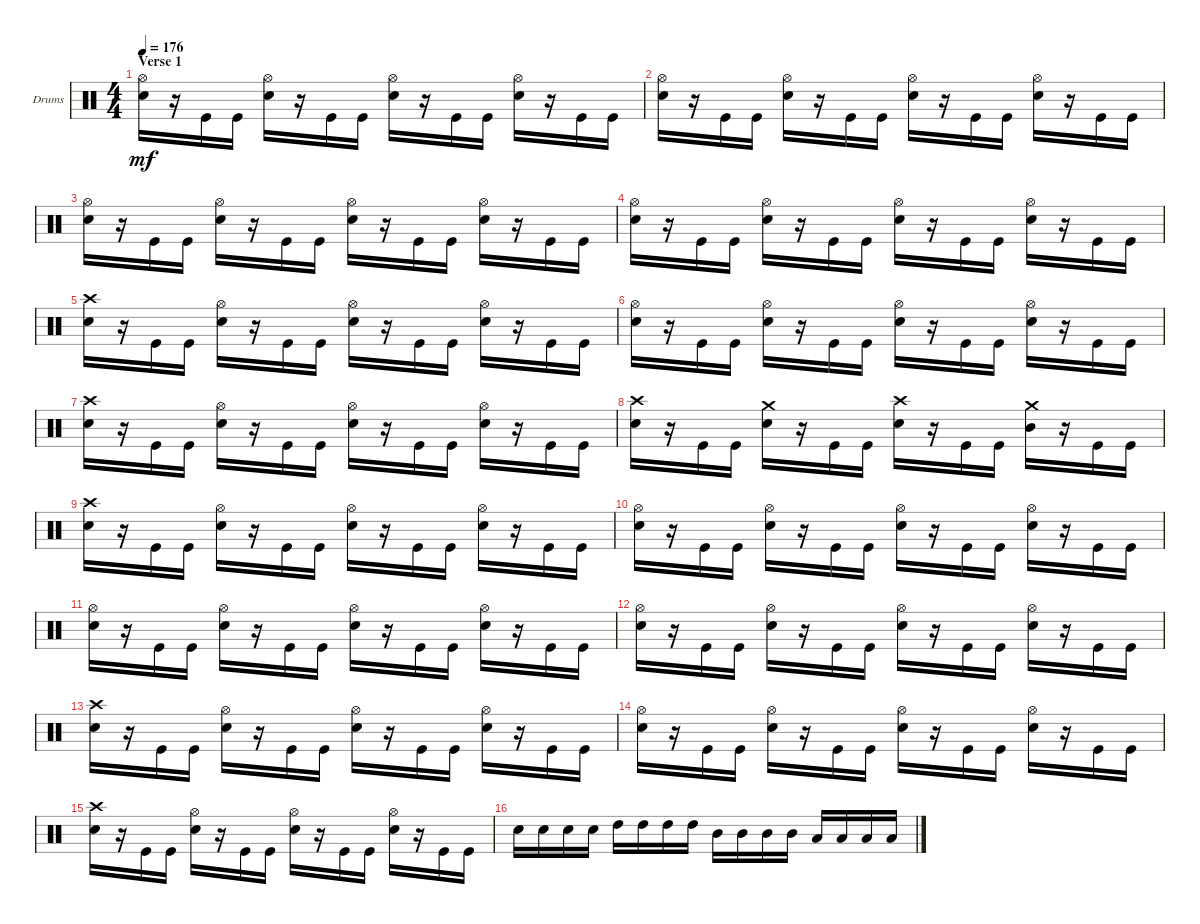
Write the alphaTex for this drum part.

\bracketExtendMode groupsimilarinstruments
\firstSystemTrackNameOrientation horizontal
\otherSystemsTrackNameOrientation horizontal
\track ("Drums" "Drums") {instrument percussion}
\staff {score}
\articulation defaults
\ts (4 4)
\section ("" "Verse 1")
\tempo 176
\clef neutral
\ks c
("Snare (hit) 2" "Hi-Hat (open)").16{dy mf} r.16 "Kick (hit)".16 "Kick (hit)".16 ("Snare (hit) 2" "Hi-Hat (open)").16 r.16 "Kick (hit)".16 "Kick (hit)".16 ("Snare (hit) 2" "Hi-Hat (open)").16 r.16 "Kick (hit)".16 "Kick (hit)".16 ("Snare (hit) 2" "Hi-Hat (open)").16 r.16 "Kick (hit)".16 "Kick (hit)".16 |
("Snare (hit) 2" "Hi-Hat (open)").16 r.16 "Kick (hit)".16 "Kick (hit)".16 ("Snare (hit) 2" "Hi-Hat (open)").16 r.16 "Kick (hit)".16 "Kick (hit)".16 ("Snare (hit) 2" "Hi-Hat (open)").16 r.16 "Kick (hit)".16 "Kick (hit)".16 ("Snare (hit) 2" "Hi-Hat (open)").16 r.16 "Kick (hit)".16 "Kick (hit)".16 |
("Snare (hit) 2" "Hi-Hat (open)").16 r.16 "Kick (hit)".16 "Kick (hit)".16 ("Snare (hit) 2" "Hi-Hat (open)").16 r.16 "Kick (hit)".16 "Kick (hit)".16 ("Snare (hit) 2" "Hi-Hat (open)").16 r.16 "Kick (hit)".16 "Kick (hit)".16 ("Snare (hit) 2" "Hi-Hat (open)").16 r.16 "Kick (hit)".16 "Kick (hit)".16 |
("Snare (hit) 2" "Hi-Hat (open)").16 r.16 "Kick (hit)".16 "Kick (hit)".16 ("Snare (hit) 2" "Hi-Hat (open)").16 r.16 "Kick (hit)".16 "Kick (hit)".16 ("Snare (hit) 2" "Hi-Hat (open)").16 r.16 "Kick (hit)".16 "Kick (hit)".16 ("Snare (hit) 2" "Hi-Hat (open)").16 r.16 "Kick (hit)".16 "Kick (hit)".16 |
("Snare (hit) 2" "Crash high (hit)").16 r.16 "Kick (hit)".16 "Kick (hit)".16 ("Snare (hit) 2" "Hi-Hat (open)").16 r.16 "Kick (hit)".16 "Kick (hit)".16 ("Snare (hit) 2" "Hi-Hat (open)").16 r.16 "Kick (hit)".16 "Kick (hit)".16 ("Snare (hit) 2" "Hi-Hat (open)").16 r.16 "Kick (hit)".16 "Kick (hit)".16 |
("Snare (hit) 2" "Hi-Hat (open)").16 r.16 "Kick (hit)".16 "Kick (hit)".16 ("Snare (hit) 2" "Hi-Hat (open)").16 r.16 "Kick (hit)".16 "Kick (hit)".16 ("Snare (hit) 2" "Hi-Hat (open)").16 r.16 "Kick (hit)".16 "Kick (hit)".16 ("Snare (hit) 2" "Hi-Hat (open)").16 r.16 "Kick (hit)".16 "Kick (hit)".16 |
("Snare (hit) 2" "Crash high (hit)").16 r.16 "Kick (hit)".16 "Kick (hit)".16 ("Snare (hit) 2" "Hi-Hat (open)").16 r.16 "Kick (hit)".16 "Kick (hit)".16 ("Snare (hit) 2" "Hi-Hat (open)").16 r.16 "Kick (hit)".16 "Kick (hit)".16 ("Snare (hit) 2" "Hi-Hat (open)").16 r.16 "Kick (hit)".16 "Kick (hit)".16 |
("Snare (hit) 2" "Crash high (hit)").16 r.16 "Kick (hit)".16 "Kick (hit)".16 ("Snare (hit) 2" "Crash medium (hit)").16 r.16 "Kick (hit)".16 "Kick (hit)".16 ("Snare (hit) 2" "Crash high (hit)").16 r.16 "Kick (hit)".16 "Kick (hit)".16 ("Mid Tom (hit)" "Crash medium (hit)").16 r.16 "Kick (hit)".16 "Kick (hit)".16 |
("Snare (hit) 2" "Crash high (hit)").16 r.16 "Kick (hit)".16 "Kick (hit)".16 ("Snare (hit) 2" "Hi-Hat (open)").16 r.16 "Kick (hit)".16 "Kick (hit)".16 ("Snare (hit) 2" "Hi-Hat (open)").16 r.16 "Kick (hit)".16 "Kick (hit)".16 ("Snare (hit) 2" "Hi-Hat (open)").16 r.16 "Kick (hit)".16 "Kick (hit)".16 |
("Snare (hit) 2" "Hi-Hat (open)").16 r.16 "Kick (hit)".16 "Kick (hit)".16 ("Snare (hit) 2" "Hi-Hat (open)").16 r.16 "Kick (hit)".16 "Kick (hit)".16 ("Snare (hit) 2" "Hi-Hat (open)").16 r.16 "Kick (hit)".16 "Kick (hit)".16 ("Snare (hit) 2" "Hi-Hat (open)").16 r.16 "Kick (hit)".16 "Kick (hit)".16 |
("Snare (hit) 2" "Hi-Hat (open)").16 r.16 "Kick (hit)".16 "Kick (hit)".16 ("Snare (hit) 2" "Hi-Hat (open)").16 r.16 "Kick (hit)".16 "Kick (hit)".16 ("Snare (hit) 2" "Hi-Hat (open)").16 r.16 "Kick (hit)".16 "Kick (hit)".16 ("Snare (hit) 2" "Hi-Hat (open)").16 r.16 "Kick (hit)".16 "Kick (hit)".16 |
("Snare (hit) 2" "Hi-Hat (open)").16 r.16 "Kick (hit)".16 "Kick (hit)".16 ("Snare (hit) 2" "Hi-Hat (open)").16 r.16 "Kick (hit)".16 "Kick (hit)".16 ("Snare (hit) 2" "Hi-Hat (open)").16 r.16 "Kick (hit)".16 "Kick (hit)".16 ("Snare (hit) 2" "Hi-Hat (open)").16 r.16 "Kick (hit)".16 "Kick (hit)".16 |
("Snare (hit) 2" "Crash high (hit)").16 r.16 "Kick (hit)".16 "Kick (hit)".16 ("Snare (hit) 2" "Hi-Hat (open)").16 r.16 "Kick (hit)".16 "Kick (hit)".16 ("Snare (hit) 2" "Hi-Hat (open)").16 r.16 "Kick (hit)".16 "Kick (hit)".16 ("Snare (hit) 2" "Hi-Hat (open)").16 r.16 "Kick (hit)".16 "Kick (hit)".16 |
("Snare (hit) 2" "Hi-Hat (open)").16 r.16 "Kick (hit)".16 "Kick (hit)".16 ("Snare (hit) 2" "Hi-Hat (open)").16 r.16 "Kick (hit)".16 "Kick (hit)".16 ("Snare (hit) 2" "Hi-Hat (open)").16 r.16 "Kick (hit)".16 "Kick (hit)".16 ("Snare (hit) 2" "Hi-Hat (open)").16 r.16 "Kick (hit)".16 "Kick (hit)".16 |
("Snare (hit) 2" "Crash high (hit)").16 r.16 "Kick (hit)".16 "Kick (hit)".16 ("Snare (hit) 2" "Hi-Hat (open)").16 r.16 "Kick (hit)".16 "Kick (hit)".16 ("Snare (hit) 2" "Hi-Hat (open)").16 r.16 "Kick (hit)".16 "Kick (hit)".16 ("Snare (hit) 2" "Hi-Hat (open)").16 r.16 "Kick (hit)".16 "Kick (hit)".16 |
"Snare (hit) 2".16 "Snare (hit) 2".16 "Snare (hit) 2".16 "Snare (hit) 2".16 "High Tom (hit)".16 "High Tom (hit)".16 "High Tom (hit)".16 "High Tom (hit)".16 "Mid Tom (hit)".16 "Mid Tom (hit)".16 "Mid Tom (hit)".16 "Mid Tom (hit)".16 "Low Tom (hit)".16 "Low Tom (hit)".16 "Low Tom (hit)".16 "Low Tom (hit)".16
